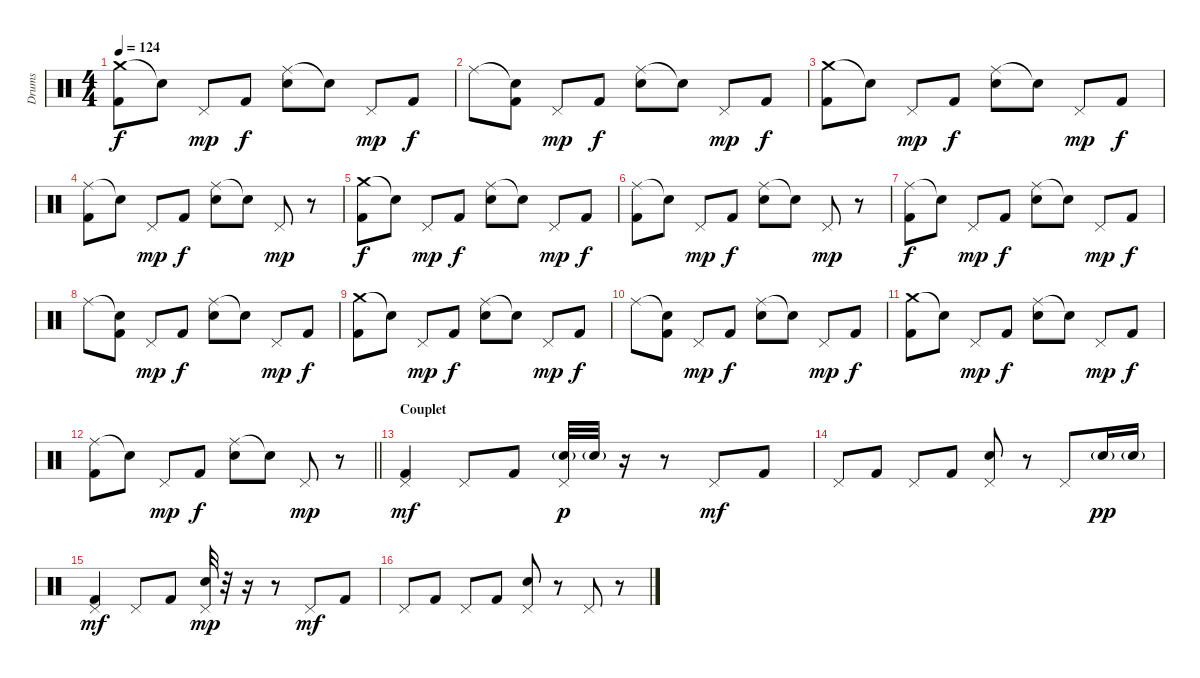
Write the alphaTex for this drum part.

\track ("Drums" "Drums") {instrument percussion}
\staff {score}
\articulation defaults
\ts (4 4)
\tempo 124
\clef neutral
\ks c
("Crash medium (hit)" "Kick (hit) 2").8{dy f} "Snare (hit)"{t}.8 "Pedal Hi-Hat (hit)".8{dy mp} "Kick (hit) 2".8{dy f} ("Ride (middle)" "Electric Snare (hit)").8 "Snare (hit)"{t}.8 "Pedal Hi-Hat (hit)".8{dy mp} "Kick (hit) 2".8{dy f} |
"Ride (middle)".8 ("Snare (hit)"{t} "Kick (hit) 2").8 "Pedal Hi-Hat (hit)".8{dy mp} "Kick (hit) 2".8{dy f} ("Ride (middle)" "Electric Snare (hit)").8 "Snare (hit)"{t}.8 "Pedal Hi-Hat (hit)".8{dy mp} "Kick (hit) 2".8{dy f} |
("Crash medium (hit)" "Kick (hit) 2").8 "Snare (hit)"{t}.8 "Pedal Hi-Hat (hit)".8{dy mp} "Kick (hit) 2".8{dy f} ("Ride (middle)" "Electric Snare (hit)").8 "Snare (hit)"{t}.8 "Pedal Hi-Hat (hit)".8{dy mp} "Kick (hit) 2".8{dy f} |
("Ride (middle)" "Kick (hit) 2").8 "Snare (hit)"{t}.8 "Pedal Hi-Hat (hit)".8{dy mp} "Kick (hit) 2".8{dy f} ("Ride (middle)" "Electric Snare (hit)").8 "Snare (hit)"{t}.8 "Pedal Hi-Hat (hit)".8{dy mp} r.8 |
("Crash medium (hit)" "Kick (hit) 2").8{dy f} "Snare (hit)"{t}.8 "Pedal Hi-Hat (hit)".8{dy mp} "Kick (hit) 2".8{dy f} ("Ride (middle)" "Electric Snare (hit)").8 "Snare (hit)"{t}.8 "Pedal Hi-Hat (hit)".8{dy mp} "Kick (hit) 2".8{dy f} |
("Ride (middle)" "Kick (hit) 2").8 "Snare (hit)"{t}.8 "Pedal Hi-Hat (hit)".8{dy mp} "Kick (hit) 2".8{dy f} ("Ride (middle)" "Electric Snare (hit)").8 "Snare (hit)"{t}.8 "Pedal Hi-Hat (hit)".8{dy mp} r.8 |
("Ride (middle)" "Kick (hit) 2").8{dy f} "Snare (hit)"{t}.8 "Pedal Hi-Hat (hit)".8{dy mp} "Kick (hit) 2".8{dy f} ("Ride (middle)" "Electric Snare (hit)").8 "Snare (hit)"{t}.8 "Pedal Hi-Hat (hit)".8{dy mp} "Kick (hit) 2".8{dy f} |
"Ride (middle)".8 ("Snare (hit)"{t} "Kick (hit) 2").8 "Pedal Hi-Hat (hit)".8{dy mp} "Kick (hit) 2".8{dy f} ("Ride (middle)" "Electric Snare (hit)").8 "Snare (hit)"{t}.8 "Pedal Hi-Hat (hit)".8{dy mp} "Kick (hit) 2".8{dy f} |
("Crash medium (hit)" "Kick (hit) 2").8 "Snare (hit)"{t}.8 "Pedal Hi-Hat (hit)".8{dy mp} "Kick (hit) 2".8{dy f} ("Ride (middle)" "Electric Snare (hit)").8 "Snare (hit)"{t}.8 "Pedal Hi-Hat (hit)".8{dy mp} "Kick (hit) 2".8{dy f} |
"Ride (middle)".8 ("Snare (hit)"{t} "Kick (hit) 2").8 "Pedal Hi-Hat (hit)".8{dy mp} "Kick (hit) 2".8{dy f} ("Ride (middle)" "Electric Snare (hit)").8 "Snare (hit)"{t}.8 "Pedal Hi-Hat (hit)".8{dy mp} "Kick (hit) 2".8{dy f} |
("Crash medium (hit)" "Kick (hit) 2").8 "Snare (hit)"{t}.8 "Pedal Hi-Hat (hit)".8{dy mp} "Kick (hit) 2".8{dy f} ("Ride (middle)" "Electric Snare (hit)").8 "Snare (hit)"{t}.8 "Pedal Hi-Hat (hit)".8{dy mp} "Kick (hit) 2".8{dy f} |
\barLineRight lightlight
("Ride (middle)" "Kick (hit) 2").8 "Snare (hit)"{t}.8 "Pedal Hi-Hat (hit)".8{dy mp} "Kick (hit) 2".8{dy f} ("Ride (middle)" "Electric Snare (hit)").8 "Snare (hit)"{t}.8 "Pedal Hi-Hat (hit)".8{dy mp} r.8 |
\section ("" "Couplet")
("Pedal Hi-Hat (hit)" "Kick (hit) 2").4{dy mf} "Pedal Hi-Hat (hit)".8 "Kick (hit) 2".8 ("Pedal Hi-Hat (hit)" "Electric Snare (hit)"{g}).32{dy p} "Electric Snare (hit)"{g}.32 r.16 r.8 "Pedal Hi-Hat (hit)".8{dy mf} "Kick (hit) 2".8 |
"Pedal Hi-Hat (hit)".8 "Kick (hit) 2".8 "Pedal Hi-Hat (hit)".8 "Kick (hit) 2".8 ("Pedal Hi-Hat (hit)" "Electric Snare (hit)").8 r.8 "Pedal Hi-Hat (hit)".8 "Electric Snare (hit)"{g}.16{dy pp} "Electric Snare (hit)"{g}.16 |
("Pedal Hi-Hat (hit)" "Kick (hit) 2").4{dy mf} "Pedal Hi-Hat (hit)".8 "Kick (hit) 2".8 ("Pedal Hi-Hat (hit)" "Electric Snare (hit)").32{dy mp} r.32 r.16 r.8 "Pedal Hi-Hat (hit)".8{dy mf} "Kick (hit) 2".8 |
"Pedal Hi-Hat (hit)".8 "Kick (hit) 2".8 "Pedal Hi-Hat (hit)".8 "Kick (hit) 2".8 ("Pedal Hi-Hat (hit)" "Electric Snare (hit)").8 r.8 "Pedal Hi-Hat (hit)".8 r.8
